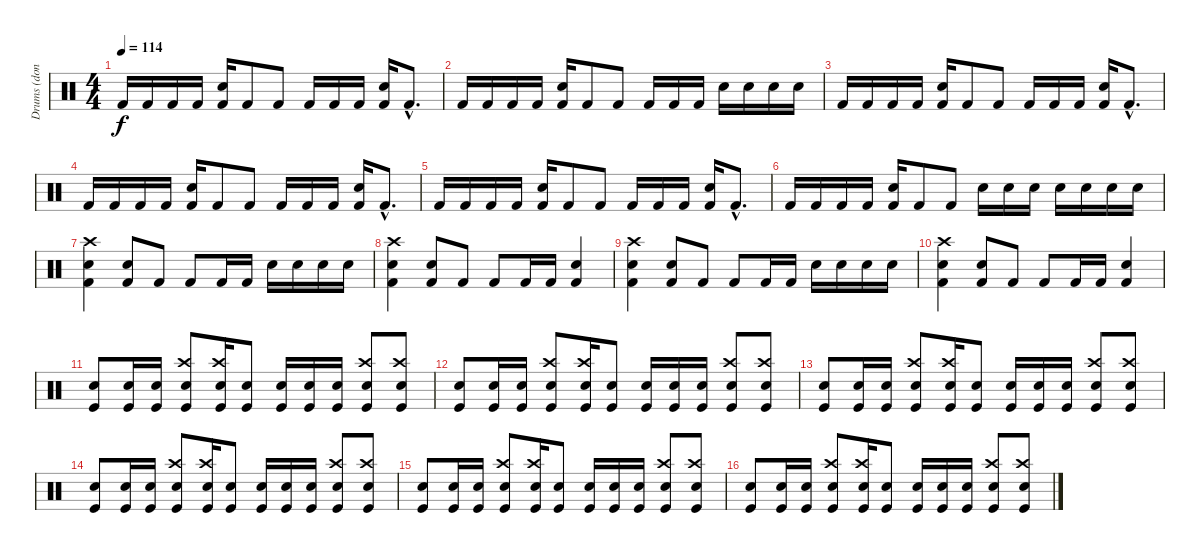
\track ("Drums (done badly)" "Drums (don") {instrument percussion}
\staff {score}
\articulation defaults
\ts (4 4)
\tempo 114
\clef neutral
\ks c "Kick (hit) 2".16{dy f} "Kick (hit) 2".16 "Kick (hit) 2".16 "Kick (hit) 2".16
("Snare (hit) 2" "Kick (hit) 2").16 "Kick (hit) 2".8 "Kick (hit) 2".8 "Kick (hit) 2".16 "Kick (hit) 2".16 "Kick (hit) 2".16 ("Snare (hit) 2" "Kick (hit) 2").16 "Kick (hit) 2"{hac}.8{d} |
"Kick (hit) 2".16 "Kick (hit) 2".16 "Kick (hit) 2".16 "Kick (hit) 2".16 ("Snare (hit) 2" "Kick (hit) 2").16 "Kick (hit) 2".8 "Kick (hit) 2".8 "Kick (hit) 2".16 "Kick (hit) 2".16 "Kick (hit) 2".16 "Snare (hit) 2".16 "Snare (hit) 2".16 "Snare (hit) 2".16 "Snare (hit) 2".16 |
"Kick (hit) 2".16 "Kick (hit) 2".16 "Kick (hit) 2".16 "Kick (hit) 2".16 ("Snare (hit) 2" "Kick (hit) 2").16 "Kick (hit) 2".8 "Kick (hit) 2".8 "Kick (hit) 2".16 "Kick (hit) 2".16 "Kick (hit) 2".16 ("Snare (hit) 2" "Kick (hit) 2").16 "Kick (hit) 2"{hac}.8{d} |
"Kick (hit) 2".16 "Kick (hit) 2".16 "Kick (hit) 2".16 "Kick (hit) 2".16 ("Snare (hit) 2" "Kick (hit) 2").16 "Kick (hit) 2".8 "Kick (hit) 2".8 "Kick (hit) 2".16 "Kick (hit) 2".16 "Kick (hit) 2".16 ("Snare (hit) 2" "Kick (hit) 2").16 "Kick (hit) 2"{hac}.8{d} |
"Kick (hit) 2".16 "Kick (hit) 2".16 "Kick (hit) 2".16 "Kick (hit) 2".16 ("Snare (hit) 2" "Kick (hit) 2").16 "Kick (hit) 2".8 "Kick (hit) 2".8 "Kick (hit) 2".16 "Kick (hit) 2".16 "Kick (hit) 2".16 ("Snare (hit) 2" "Kick (hit) 2").16 "Kick (hit) 2"{hac}.8{d} |
"Kick (hit) 2".16 "Kick (hit) 2".16 "Kick (hit) 2".16 "Kick (hit) 2".16 ("Snare (hit) 2" "Kick (hit) 2").16 "Kick (hit) 2".8 "Kick (hit) 2".8 "Snare (hit) 2".16 "Snare (hit) 2".16 "Snare (hit) 2".16 "Snare (hit) 2".16 "Snare (hit) 2".16 "Snare (hit) 2".16 "Snare (hit) 2".16 |
("Crash high (hit)" "Snare (hit) 2" "Kick (hit) 2").4 ("Snare (hit) 2" "Kick (hit) 2").8 "Kick (hit) 2".8 "Kick (hit) 2".8 "Kick (hit) 2".16 "Kick (hit) 2".16 "Snare (hit) 2".16 "Snare (hit) 2".16 "Snare (hit) 2".16 "Snare (hit) 2".16 |
("Crash high (hit)" "Snare (hit) 2" "Kick (hit) 2").4 ("Snare (hit) 2" "Kick (hit) 2").8 "Kick (hit) 2".8 "Kick (hit) 2".8 "Kick (hit) 2".16 "Kick (hit) 2".16 ("Snare (hit) 2" "Kick (hit) 2").4 |
("Crash high (hit)" "Snare (hit) 2" "Kick (hit) 2").4 ("Snare (hit) 2" "Kick (hit) 2").8 "Kick (hit) 2".8 "Kick (hit) 2".8 "Kick (hit) 2".16 "Kick (hit) 2".16 "Snare (hit) 2".16 "Snare (hit) 2".16 "Snare (hit) 2".16 "Snare (hit) 2".16 |
("Crash high (hit)" "Snare (hit) 2" "Kick (hit) 2").4 ("Snare (hit) 2" "Kick (hit) 2").8 "Kick (hit) 2".8 "Kick (hit) 2".8 "Kick (hit) 2".16 "Kick (hit) 2".16 ("Snare (hit) 2" "Kick (hit) 2").4 |
("Snare (hit) 2" "Kick (hit)").8 ("Snare (hit) 2" "Kick (hit)").16 ("Snare (hit) 2" "Kick (hit)").16 ("Crash high (hit)" "Snare (hit) 2" "Kick (hit)").8 ("Crash high (hit)" "Snare (hit) 2" "Kick (hit)").16 ("Snare (hit) 2" "Kick (hit)").8 ("Snare (hit) 2" "Kick (hit)").16 ("Snare (hit) 2" "Kick (hit)").16 ("Snare (hit) 2" "Kick (hit)").16 ("Crash high (hit)" "Snare (hit) 2" "Kick (hit)").8 ("Crash high (hit)" "Snare (hit) 2" "Kick (hit)").8 |
("Snare (hit) 2" "Kick (hit)").8 ("Snare (hit) 2" "Kick (hit)").16 ("Snare (hit) 2" "Kick (hit)").16 ("Crash high (hit)" "Snare (hit) 2" "Kick (hit)").8 ("Crash high (hit)" "Snare (hit) 2" "Kick (hit)").16 ("Snare (hit) 2" "Kick (hit)").8 ("Snare (hit) 2" "Kick (hit)").16 ("Snare (hit) 2" "Kick (hit)").16 ("Snare (hit) 2" "Kick (hit)").16 ("Crash high (hit)" "Snare (hit) 2" "Kick (hit)").8 ("Crash high (hit)" "Snare (hit) 2" "Kick (hit)").8 |
("Snare (hit) 2" "Kick (hit)").8 ("Snare (hit) 2" "Kick (hit)").16 ("Snare (hit) 2" "Kick (hit)").16 ("Crash high (hit)" "Snare (hit) 2" "Kick (hit)").8 ("Crash high (hit)" "Snare (hit) 2" "Kick (hit)").16 ("Snare (hit) 2" "Kick (hit)").8 ("Snare (hit) 2" "Kick (hit)").16 ("Snare (hit) 2" "Kick (hit)").16 ("Snare (hit) 2" "Kick (hit)").16 ("Crash high (hit)" "Snare (hit) 2" "Kick (hit)").8 ("Crash high (hit)" "Snare (hit) 2" "Kick (hit)").8 |
("Snare (hit) 2" "Kick (hit)").8 ("Snare (hit) 2" "Kick (hit)").16 ("Snare (hit) 2" "Kick (hit)").16 ("Crash high (hit)" "Snare (hit) 2" "Kick (hit)").8 ("Crash high (hit)" "Snare (hit) 2" "Kick (hit)").16 ("Snare (hit) 2" "Kick (hit)").8 ("Snare (hit) 2" "Kick (hit)").16 ("Snare (hit) 2" "Kick (hit)").16 ("Snare (hit) 2" "Kick (hit)").16 ("Crash high (hit)" "Snare (hit) 2" "Kick (hit)").8 ("Crash high (hit)" "Snare (hit) 2" "Kick (hit)").8 |
("Snare (hit) 2" "Kick (hit)").8 ("Snare (hit) 2" "Kick (hit)").16 ("Snare (hit) 2" "Kick (hit)").16 ("Crash high (hit)" "Snare (hit) 2" "Kick (hit)").8 ("Crash high (hit)" "Snare (hit) 2" "Kick (hit)").16 ("Snare (hit) 2" "Kick (hit)").8 ("Snare (hit) 2" "Kick (hit)").16 ("Snare (hit) 2" "Kick (hit)").16 ("Snare (hit) 2" "Kick (hit)").16 ("Crash high (hit)" "Snare (hit) 2" "Kick (hit)").8 ("Crash high (hit)" "Snare (hit) 2" "Kick (hit)").8 |
("Snare (hit) 2" "Kick (hit)").8 ("Snare (hit) 2" "Kick (hit)").16 ("Snare (hit) 2" "Kick (hit)").16 ("Crash high (hit)" "Snare (hit) 2" "Kick (hit)").8 ("Crash high (hit)" "Snare (hit) 2" "Kick (hit)").16 ("Snare (hit) 2" "Kick (hit)").8 ("Snare (hit) 2" "Kick (hit)").16 ("Snare (hit) 2" "Kick (hit)").16 ("Snare (hit) 2" "Kick (hit)").16 ("Crash high (hit)" "Snare (hit) 2" "Kick (hit)").8 ("Crash high (hit)" "Snare (hit) 2" "Kick (hit)").8
